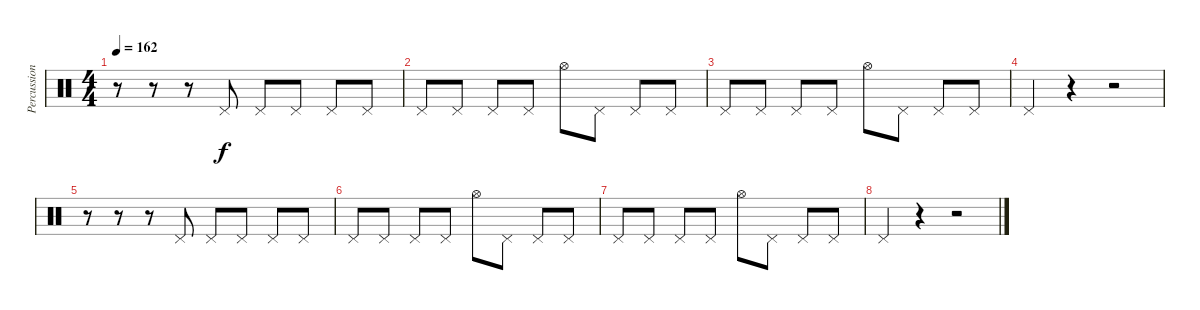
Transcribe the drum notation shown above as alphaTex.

\track ("Percussion" "Percussion") {instrument percussion}
\staff {score}
\articulation defaults
\ts (4 4)
\tempo 162
\clef neutral
\ks c
r.8{dy f} r.8 r.8 "Pedal Hi-Hat (hit)".8 "Pedal Hi-Hat (hit)".8 "Pedal Hi-Hat (hit)".8 "Pedal Hi-Hat (hit)".8 "Pedal Hi-Hat (hit)".8 |
"Pedal Hi-Hat (hit)".8 "Pedal Hi-Hat (hit)".8 "Pedal Hi-Hat (hit)".8 "Pedal Hi-Hat (hit)".8 "Hi-Hat (open)".8 "Pedal Hi-Hat (hit)".8 "Pedal Hi-Hat (hit)".8 "Pedal Hi-Hat (hit)".8 |
"Pedal Hi-Hat (hit)".8 "Pedal Hi-Hat (hit)".8 "Pedal Hi-Hat (hit)".8 "Pedal Hi-Hat (hit)".8 "Hi-Hat (open)".8 "Pedal Hi-Hat (hit)".8 "Pedal Hi-Hat (hit)".8 "Pedal Hi-Hat (hit)".8 |
"Pedal Hi-Hat (hit)".4 r.4 r.2 |
r.8 r.8 r.8 "Pedal Hi-Hat (hit)".8 "Pedal Hi-Hat (hit)".8 "Pedal Hi-Hat (hit)".8 "Pedal Hi-Hat (hit)".8 "Pedal Hi-Hat (hit)".8 |
"Pedal Hi-Hat (hit)".8 "Pedal Hi-Hat (hit)".8 "Pedal Hi-Hat (hit)".8 "Pedal Hi-Hat (hit)".8 "Hi-Hat (open)".8 "Pedal Hi-Hat (hit)".8 "Pedal Hi-Hat (hit)".8 "Pedal Hi-Hat (hit)".8 |
"Pedal Hi-Hat (hit)".8 "Pedal Hi-Hat (hit)".8 "Pedal Hi-Hat (hit)".8 "Pedal Hi-Hat (hit)".8 "Hi-Hat (open)".8 "Pedal Hi-Hat (hit)".8 "Pedal Hi-Hat (hit)".8 "Pedal Hi-Hat (hit)".8 |
"Pedal Hi-Hat (hit)".4 r.4 r.2
